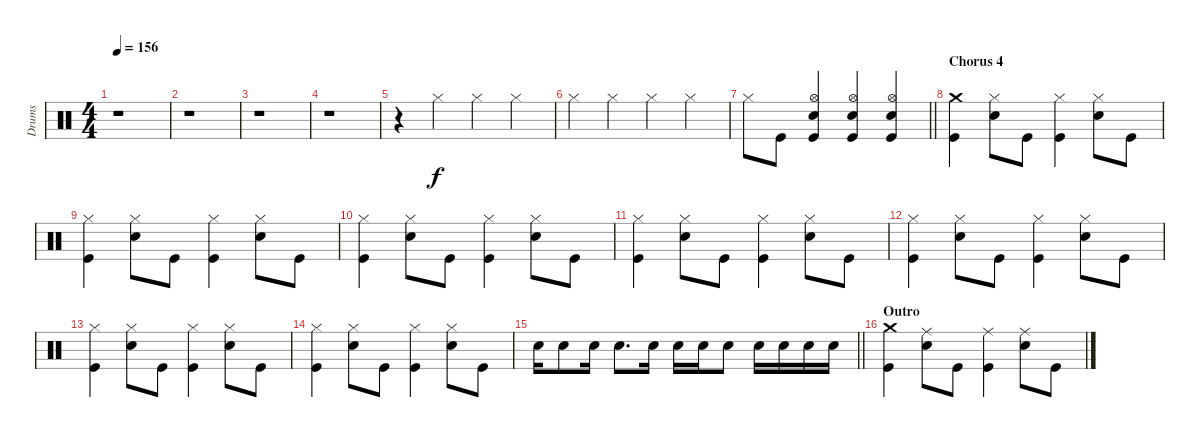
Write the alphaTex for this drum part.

\track ("Drums" "Drums") {instrument percussion}
\staff {score}
\articulation defaults
\ts (4 4)
\tempo 156
\clef neutral
\ks c
r.1{dy f} |
r.1 |
r.1 |
r.1 |
r.4 "Hi-Hat (closed)".4 "Hi-Hat (closed)".4 "Hi-Hat (closed)".4 |
"Hi-Hat (closed)".4 "Hi-Hat (closed)".4 "Hi-Hat (closed)".4 "Hi-Hat (closed)".4 |
\barLineRight lightlight "Hi-Hat (closed)".8 "Kick (hit)".8
("Hi-Hat (open)" "Snare (hit) 2" "Kick (hit)").4 ("Hi-Hat (open)" "Snare (hit) 2" "Kick (hit)").4 ("Hi-Hat (open)" "Snare (hit) 2" "Kick (hit)").4 |
\section ("" "Chorus 4")
("Crash medium (hit)" "Kick (hit)").4 ("Hi-Hat (closed)" "Snare (hit) 2").8 "Kick (hit)".8 ("Hi-Hat (closed)" "Kick (hit)").4 ("Hi-Hat (closed)" "Snare (hit) 2").8 "Kick (hit)".8 |
("Hi-Hat (closed)" "Kick (hit)").4 ("Hi-Hat (closed)" "Snare (hit) 2").8 "Kick (hit)".8 ("Hi-Hat (closed)" "Kick (hit)").4 ("Hi-Hat (closed)" "Snare (hit) 2").8 "Kick (hit)".8 |
("Hi-Hat (closed)" "Kick (hit)").4 ("Hi-Hat (closed)" "Snare (hit) 2").8 "Kick (hit)".8 ("Hi-Hat (closed)" "Kick (hit)").4 ("Hi-Hat (closed)" "Snare (hit) 2").8 "Kick (hit)".8 |
("Hi-Hat (closed)" "Kick (hit)").4 ("Hi-Hat (closed)" "Snare (hit) 2").8 "Kick (hit)".8 ("Hi-Hat (closed)" "Kick (hit)").4 ("Hi-Hat (closed)" "Snare (hit) 2").8 "Kick (hit)".8 |
("Hi-Hat (closed)" "Kick (hit)").4 ("Hi-Hat (closed)" "Snare (hit) 2").8 "Kick (hit)".8 ("Hi-Hat (closed)" "Kick (hit)").4 ("Hi-Hat (closed)" "Snare (hit) 2").8 "Kick (hit)".8 |
("Hi-Hat (closed)" "Kick (hit)").4 ("Hi-Hat (closed)" "Snare (hit) 2").8 "Kick (hit)".8 ("Hi-Hat (closed)" "Kick (hit)").4 ("Hi-Hat (closed)" "Snare (hit) 2").8 "Kick (hit)".8 |
("Hi-Hat (closed)" "Kick (hit)").4 ("Hi-Hat (closed)" "Snare (hit) 2").8 "Kick (hit)".8 ("Hi-Hat (closed)" "Kick (hit)").4 ("Hi-Hat (closed)" "Snare (hit) 2").8 "Kick (hit)".8 |
\barLineRight lightlight "Snare (hit) 2".16 "Snare (hit) 2".8 "Snare (hit) 2".16 "Snare (hit) 2".8{d} "Snare (hit) 2".16 "Snare (hit) 2".16 "Snare (hit) 2".16 "Snare (hit) 2".8 "Snare (hit) 2".16 "Snare (hit) 2".16 "Snare (hit) 2".16 "Snare (hit) 2".16
|
\section ("" "Outro")
("Crash medium (hit)" "Kick (hit)").4 ("Ride (middle)" "Snare (hit) 2").8 "Kick (hit)".8 ("Ride (middle)" "Kick (hit)").4 ("Ride (middle)" "Snare (hit) 2").8 "Kick (hit)".8
